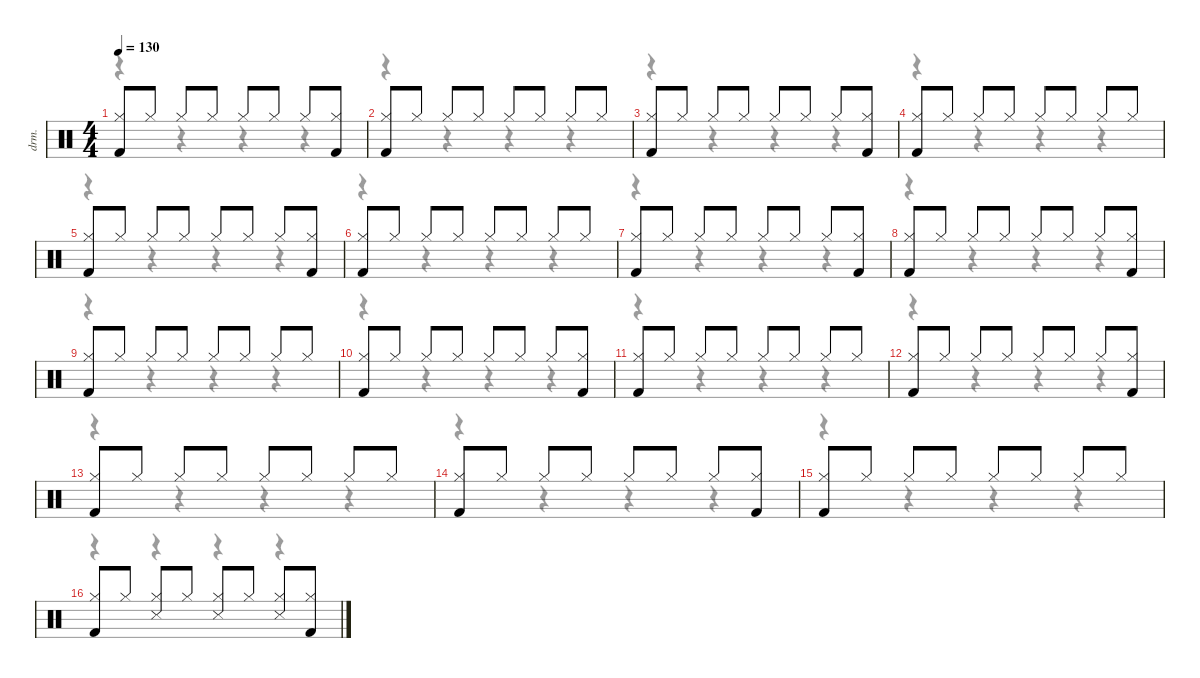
\defaultSystemsLayout 4
\hideDynamics
\bracketExtendMode nobrackets
\track ("Drums" "drm.") {instrument percussion}
\staff {score}
\articulation defaults
\voice
\ts (4 4)
\tempo 130
\clef neutral
\ks c
("Kick (hit) 2" "Hi-Hat (closed)").8{dy fff beam Up} "Hi-Hat (closed)".8{beam Up} "Hi-Hat (closed)".8{beam Up} "Hi-Hat (closed)".8{beam Up} "Hi-Hat (closed)".8{beam Up} "Hi-Hat (closed)".8{beam Up} "Hi-Hat (closed)".8{beam Up} ("Kick (hit) 2" "Hi-Hat (closed)").8{beam Up} |
("Kick (hit) 2" "Hi-Hat (closed)").8{beam Up} "Hi-Hat (closed)".8{beam Up} "Hi-Hat (closed)".8{beam Up} "Hi-Hat (closed)".8{beam Up} "Hi-Hat (closed)".8{beam Up} "Hi-Hat (closed)".8{beam Up} "Hi-Hat (closed)".8{beam Up} "Hi-Hat (closed)".8{beam Up} |
("Kick (hit) 2" "Hi-Hat (closed)").8{beam Up} "Hi-Hat (closed)".8{beam Up} "Hi-Hat (closed)".8{beam Up} "Hi-Hat (closed)".8{beam Up} "Hi-Hat (closed)".8{beam Up} "Hi-Hat (closed)".8{beam Up} "Hi-Hat (closed)".8{beam Up} ("Kick (hit) 2" "Hi-Hat (closed)").8{beam Up} |
("Kick (hit) 2" "Hi-Hat (closed)").8{beam Up} "Hi-Hat (closed)".8{beam Up} "Hi-Hat (closed)".8{beam Up} "Hi-Hat (closed)".8{beam Up} "Hi-Hat (closed)".8{beam Up} "Hi-Hat (closed)".8{beam Up} "Hi-Hat (closed)".8{beam Up} "Hi-Hat (closed)".8{beam Up} |
("Kick (hit) 2" "Hi-Hat (closed)").8{beam Up} "Hi-Hat (closed)".8{beam Up} "Hi-Hat (closed)".8{beam Up} "Hi-Hat (closed)".8{beam Up} "Hi-Hat (closed)".8{beam Up} "Hi-Hat (closed)".8{beam Up} "Hi-Hat (closed)".8{beam Up} ("Kick (hit) 2" "Hi-Hat (closed)").8{beam Up} |
("Kick (hit) 2" "Hi-Hat (closed)").8{beam Up} "Hi-Hat (closed)".8{beam Up} "Hi-Hat (closed)".8{beam Up} "Hi-Hat (closed)".8{beam Up} "Hi-Hat (closed)".8{beam Up} "Hi-Hat (closed)".8{beam Up} "Hi-Hat (closed)".8{beam Up} "Hi-Hat (closed)".8{beam Up} |
("Kick (hit) 2" "Hi-Hat (closed)").8{beam Up} "Hi-Hat (closed)".8{beam Up} "Hi-Hat (closed)".8{beam Up} "Hi-Hat (closed)".8{beam Up} "Hi-Hat (closed)".8{beam Up} "Hi-Hat (closed)".8{beam Up} "Hi-Hat (closed)".8{beam Up} ("Kick (hit) 2" "Hi-Hat (closed)").8{beam Up} |
("Kick (hit) 2" "Hi-Hat (closed)").8{beam Up} "Hi-Hat (closed)".8{beam Up} "Hi-Hat (closed)".8{beam Up} "Hi-Hat (closed)".8{beam Up} "Hi-Hat (closed)".8{beam Up} "Hi-Hat (closed)".8{beam Up} "Hi-Hat (closed)".8{beam Up} ("Hi-Hat (closed)" "Kick (hit) 2").8{beam Up} |
("Kick (hit) 2" "Hi-Hat (closed)").8{beam Up} "Hi-Hat (closed)".8{beam Up} "Hi-Hat (closed)".8{beam Up} "Hi-Hat (closed)".8{beam Up} "Hi-Hat (closed)".8{beam Up} "Hi-Hat (closed)".8{beam Up} "Hi-Hat (closed)".8{beam Up} "Hi-Hat (closed)".8{beam Up} |
("Kick (hit) 2" "Hi-Hat (closed)").8{beam Up} "Hi-Hat (closed)".8{beam Up} "Hi-Hat (closed)".8{beam Up} "Hi-Hat (closed)".8{beam Up} "Hi-Hat (closed)".8{beam Up} "Hi-Hat (closed)".8{beam Up} "Hi-Hat (closed)".8{beam Up} ("Kick (hit) 2" "Hi-Hat (closed)").8{beam Up} |
("Kick (hit) 2" "Hi-Hat (closed)").8{beam Up} "Hi-Hat (closed)".8{beam Up} "Hi-Hat (closed)".8{beam Up} "Hi-Hat (closed)".8{beam Up} "Hi-Hat (closed)".8{beam Up} "Hi-Hat (closed)".8{beam Up} "Hi-Hat (closed)".8{beam Up} "Hi-Hat (closed)".8{beam Up} |
("Kick (hit) 2" "Hi-Hat (closed)").8{beam Up} "Hi-Hat (closed)".8{beam Up} "Hi-Hat (closed)".8{beam Up} "Hi-Hat (closed)".8{beam Up} "Hi-Hat (closed)".8{beam Up} "Hi-Hat (closed)".8{beam Up} "Hi-Hat (closed)".8{beam Up} ("Kick (hit) 2" "Hi-Hat (closed)").8{beam Up} |
("Kick (hit) 2" "Hi-Hat (closed)").8{beam Up} "Hi-Hat (closed)".8{beam Up} "Hi-Hat (closed)".8{beam Up} "Hi-Hat (closed)".8{beam Up} "Hi-Hat (closed)".8{beam Up} "Hi-Hat (closed)".8{beam Up} "Hi-Hat (closed)".8{beam Up} "Hi-Hat (closed)".8{beam Up} |
("Kick (hit) 2" "Hi-Hat (closed)").8{beam Up} "Hi-Hat (closed)".8{beam Up} "Hi-Hat (closed)".8{beam Up} "Hi-Hat (closed)".8{beam Up} "Hi-Hat (closed)".8{beam Up} "Hi-Hat (closed)".8{beam Up} "Hi-Hat (closed)".8{beam Up} ("Kick (hit) 2" "Hi-Hat (closed)").8{beam Up} |
("Kick (hit) 2" "Hi-Hat (closed)").8{beam Up} "Hi-Hat (closed)".8{beam Up} "Hi-Hat (closed)".8{beam Up} "Hi-Hat (closed)".8{beam Up} "Hi-Hat (closed)".8{beam Up} "Hi-Hat (closed)".8{beam Up} "Hi-Hat (closed)".8{beam Up} "Hi-Hat (closed)".8{beam Up} |
("Kick (hit) 2" "Hi-Hat (closed)").8{beam Up} "Hi-Hat (closed)".8{beam Up} ("Snare (side stick) 3" "Hi-Hat (closed)").8{beam Up} "Hi-Hat (closed)".8{beam Up} ("Snare (side stick) 3" "Hi-Hat (closed)").8{beam Up} "Hi-Hat (closed)".8{beam Up} ("Snare (side stick) 3" "Hi-Hat (closed)").8{beam Up} ("Kick (hit) 2" "Hi-Hat (closed)").8{beam Up}
\voice
\clef neutral
\ottava regular
\simile none
\ks c
r.4{dy mf beam Down} r.4{beam Down} r.4{beam Down} r.4{beam Down} |
r.4{beam Down} r.4{beam Down} r.4{beam Down} r.4{beam Down} |
r.4{beam Down} r.4{beam Down} r.4{beam Down} r.4{beam Down} |
r.4{beam Down} r.4{beam Down} r.4{beam Down} r.4{beam Down} |
r.4{beam Down} r.4{beam Down} r.4{beam Down} r.4{beam Down} |
r.4{beam Down} r.4{beam Down} r.4{beam Down} r.4{beam Down} |
r.4{beam Down} r.4{beam Down} r.4{beam Down} r.4{beam Down} |
r.4{beam Down} r.4{beam Down} r.4{beam Down} r.4{beam Down} |
r.4{beam Down} r.4{beam Down} r.4{beam Down} r.4{beam Down} |
r.4{beam Down} r.4{beam Down} r.4{beam Down} r.4{beam Down} |
r.4{beam Down} r.4{beam Down} r.4{beam Down} r.4{beam Down} |
r.4{beam Down} r.4{beam Down} r.4{beam Down} r.4{beam Down} |
r.4{beam Down} r.4{beam Down} r.4{beam Down} r.4{beam Down} |
r.4{beam Down} r.4{beam Down} r.4{beam Down} r.4{beam Down} |
r.4{beam Down} r.4{beam Down} r.4{beam Down} r.4{beam Down} |
r.4{beam Down} r.4{beam Down} r.4{beam Down} r.4{beam Down}
